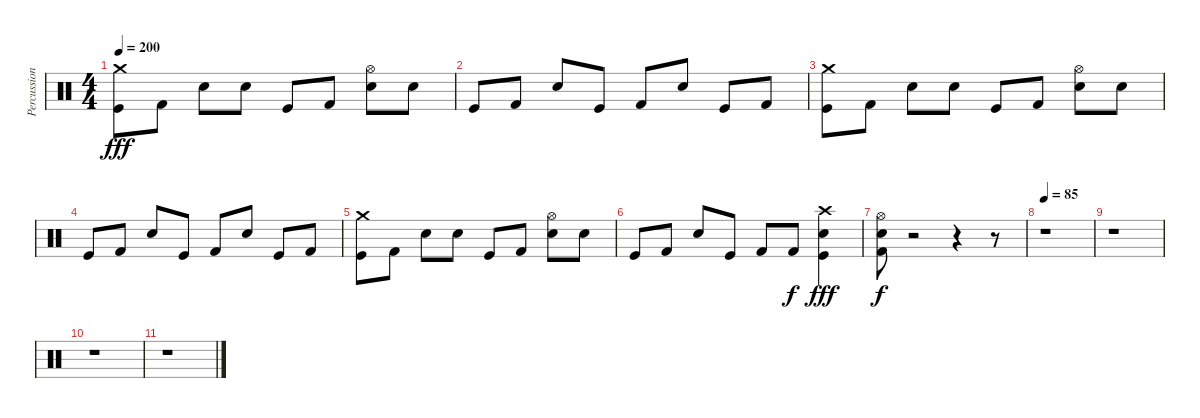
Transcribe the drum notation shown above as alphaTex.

\track ("Percussion" "Percussion") {instrument percussion}
\staff {score}
\articulation defaults
\ts (4 4)
\tempo 200
\clef neutral
\ks c
("Crash medium (hit)" "Kick (hit)").8{dy fff} "Kick (hit) 2".8 "Snare (hit) 2".8 "Snare (hit) 2".8 "Kick (hit)".8 "Kick (hit) 2".8 ("Hi-Hat (open)" "Snare (hit) 2").8 "Snare (hit) 2".8 |
"Kick (hit)".8 "Kick (hit) 2".8 "Snare (hit) 2".8 "Kick (hit)".8 "Kick (hit) 2".8 "Snare (hit) 2".8 "Kick (hit)".8 "Kick (hit) 2".8 |
("Crash medium (hit)" "Kick (hit)").8 "Kick (hit) 2".8 "Snare (hit) 2".8 "Snare (hit) 2".8 "Kick (hit)".8 "Kick (hit) 2".8 ("Hi-Hat (open)" "Snare (hit) 2").8 "Snare (hit) 2".8 |
"Kick (hit)".8 "Kick (hit) 2".8 "Snare (hit) 2".8 "Kick (hit)".8 "Kick (hit) 2".8 "Snare (hit) 2".8 "Kick (hit)".8 "Kick (hit) 2".8 |
("Crash medium (hit)" "Kick (hit)").8 "Kick (hit) 2".8 "Snare (hit) 2".8 "Snare (hit) 2".8 "Kick (hit)".8 "Kick (hit) 2".8 ("Hi-Hat (open)" "Snare (hit) 2").8 "Snare (hit) 2".8 |
"Kick (hit)".8 "Kick (hit) 2".8 "Snare (hit) 2".8 "Kick (hit)".8 "Kick (hit) 2".8 "Kick (hit) 2".8{dy f} ("Crash high (hit)" "Snare (hit) 2" "Kick (hit)").4{dy fff} |
("Hi-Hat (open)" "Snare (hit) 2" "Kick (hit) 2").8{dy f} r.2 r.4 r.8 |
\tempo 85
r.1 |
r.1 |
r.1 |
r.1
